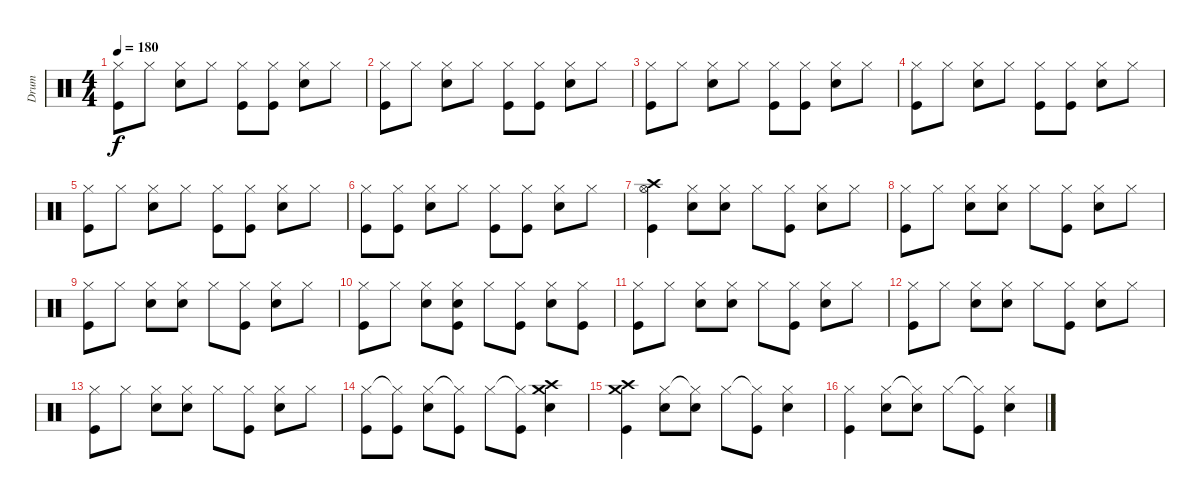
\track ("Drum" "Drum") {instrument percussion}
\staff {score}
\articulation defaults
\ts (4 4)
\tempo 180
\clef neutral
\ks c
("Hi-Hat (closed)" "Kick (hit)").8{dy f} "Hi-Hat (closed)".8 ("Hi-Hat (closed)" "Snare (hit) 2").8 "Hi-Hat (closed)".8 ("Hi-Hat (closed)" "Kick (hit)").8 ("Hi-Hat (closed)" "Kick (hit)").8 ("Hi-Hat (closed)" "Snare (hit) 2").8 "Hi-Hat (closed)".8 |
("Hi-Hat (closed)" "Kick (hit)").8 "Hi-Hat (closed)".8 ("Hi-Hat (closed)" "Snare (hit) 2").8 "Hi-Hat (closed)".8 ("Hi-Hat (closed)" "Kick (hit)").8 ("Hi-Hat (closed)" "Kick (hit)").8 ("Hi-Hat (closed)" "Snare (hit) 2").8 "Hi-Hat (closed)".8 |
("Hi-Hat (closed)" "Kick (hit)").8 "Hi-Hat (closed)".8 ("Hi-Hat (closed)" "Snare (hit) 2").8 "Hi-Hat (closed)".8 ("Hi-Hat (closed)" "Kick (hit)").8 ("Hi-Hat (closed)" "Kick (hit)").8 ("Hi-Hat (closed)" "Snare (hit) 2").8 "Hi-Hat (closed)".8 |
("Hi-Hat (closed)" "Kick (hit)").8 "Hi-Hat (closed)".8 ("Hi-Hat (closed)" "Snare (hit) 2").8 "Hi-Hat (closed)".8 ("Hi-Hat (closed)" "Kick (hit)").8 ("Hi-Hat (closed)" "Kick (hit)").8 ("Hi-Hat (closed)" "Snare (hit) 2").8 "Hi-Hat (closed)".8 |
("Hi-Hat (closed)" "Kick (hit)").8 "Hi-Hat (closed)".8 ("Hi-Hat (closed)" "Snare (hit) 2").8 "Hi-Hat (closed)".8 ("Hi-Hat (closed)" "Kick (hit)").8 ("Hi-Hat (closed)" "Kick (hit)").8 ("Hi-Hat (closed)" "Snare (hit) 2").8 "Hi-Hat (closed)".8 |
("Hi-Hat (closed)" "Kick (hit)").8 ("Hi-Hat (closed)" "Kick (hit)").8 ("Hi-Hat (closed)" "Snare (hit) 2").8 "Hi-Hat (closed)".8 ("Hi-Hat (closed)" "Kick (hit)").8 ("Hi-Hat (closed)" "Kick (hit)").8 ("Hi-Hat (closed)" "Snare (hit) 2").8 "Hi-Hat (closed)".8 |
("Crash high (hit)" "Hi-Hat (open)" "Kick (hit)").4 ("Hi-Hat (closed)" "Snare (hit) 2").8 ("Hi-Hat (closed)" "Snare (hit) 2").8 "Hi-Hat (closed)".8 ("Hi-Hat (closed)" "Kick (hit)").8 ("Hi-Hat (closed)" "Snare (hit) 2").8 "Hi-Hat (closed)".8 |
("Hi-Hat (closed)" "Kick (hit)").8 "Hi-Hat (closed)".8 ("Hi-Hat (closed)" "Snare (hit) 2").8 ("Hi-Hat (closed)" "Snare (hit) 2").8 "Hi-Hat (closed)".8 ("Hi-Hat (closed)" "Kick (hit)").8 ("Hi-Hat (closed)" "Snare (hit) 2").8 "Hi-Hat (closed)".8 |
("Hi-Hat (closed)" "Kick (hit)").8 "Hi-Hat (closed)".8 ("Hi-Hat (closed)" "Snare (hit) 2").8 ("Hi-Hat (closed)" "Snare (hit) 2").8 "Hi-Hat (closed)".8 ("Hi-Hat (closed)" "Kick (hit)").8 ("Hi-Hat (closed)" "Snare (hit) 2").8 "Hi-Hat (closed)".8 |
("Hi-Hat (closed)" "Kick (hit)").8 "Hi-Hat (closed)".8 ("Hi-Hat (closed)" "Snare (hit) 2").8 ("Hi-Hat (closed)" "Snare (hit) 2" "Kick (hit)").8 "Hi-Hat (closed)".8 ("Hi-Hat (closed)" "Kick (hit)").8 ("Hi-Hat (closed)" "Snare (hit) 2").8 ("Hi-Hat (closed)" "Kick (hit)").8 |
("Hi-Hat (closed)" "Kick (hit)").8 "Hi-Hat (closed)".8 ("Hi-Hat (closed)" "Snare (hit) 2").8 ("Hi-Hat (closed)" "Snare (hit) 2").8 "Hi-Hat (closed)".8 ("Hi-Hat (closed)" "Kick (hit)").8 ("Hi-Hat (closed)" "Snare (hit) 2").8 "Hi-Hat (closed)".8 |
("Hi-Hat (closed)" "Kick (hit)").8 "Hi-Hat (closed)".8 ("Hi-Hat (closed)" "Snare (hit) 2").8 ("Hi-Hat (closed)" "Snare (hit) 2").8 "Hi-Hat (closed)".8 ("Hi-Hat (closed)" "Kick (hit)").8 ("Hi-Hat (closed)" "Snare (hit) 2").8 "Hi-Hat (closed)".8 |
("Hi-Hat (closed)" "Kick (hit)").8 "Hi-Hat (closed)".8 ("Hi-Hat (closed)" "Snare (hit) 2").8 ("Hi-Hat (closed)" "Snare (hit) 2").8 "Hi-Hat (closed)".8 ("Hi-Hat (closed)" "Kick (hit)").8 ("Hi-Hat (closed)" "Snare (hit) 2").8 "Hi-Hat (closed)".8 |
("Hi-Hat (closed)" "Kick (hit)").8 ("Hi-Hat (closed)"{t} "Kick (hit)").8 ("Hi-Hat (closed)" "Snare (hit) 2").8 ("Hi-Hat (closed)"{t} "Kick (hit)").8 "Hi-Hat (closed)".8 ("Hi-Hat (closed)"{t} "Kick (hit)").8 ("Crash high (hit)" "Crash medium (hit)" "Snare (hit) 2").4 |
("Crash high (hit)" "Crash medium (hit)" "Kick (hit)").4 ("Hi-Hat (closed)" "Snare (hit) 2").8 ("Hi-Hat (closed)"{t} "Snare (hit) 2").8 "Hi-Hat (closed)".8 ("Hi-Hat (closed)"{t} "Kick (hit)").8 ("Hi-Hat (closed)" "Snare (hit) 2").4 |
("Hi-Hat (closed)" "Kick (hit)").4 ("Hi-Hat (closed)" "Snare (hit) 2").8 ("Hi-Hat (closed)"{t} "Snare (hit) 2").8 "Hi-Hat (closed)".8 ("Hi-Hat (closed)"{t} "Kick (hit)").8 ("Hi-Hat (closed)" "Snare (hit) 2").4
